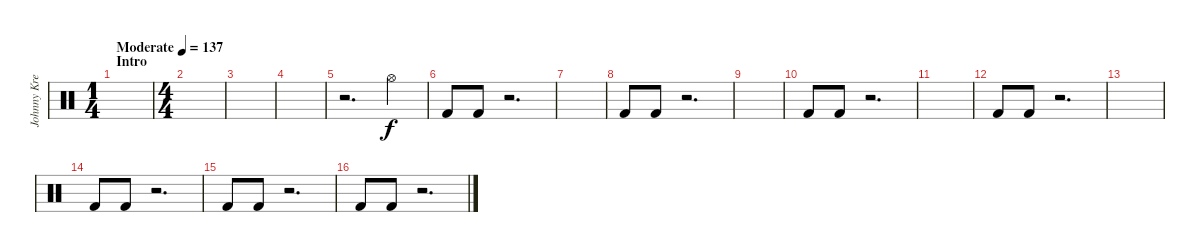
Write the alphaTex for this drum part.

\track ("Johnny Kreis" "Johnny Kre") {instrument percussion}
\staff {score}
\articulation defaults
\ts (1 4)
\section ("" "Intro")
\tempo (137 "Moderate")
\clef neutral
\ks c
|
\ts (4 4)
|
|
|
r.2{d} "Hi-Hat (open)".4 |
"Kick (hit) 2".8 "Kick (hit) 2".8 r.2{d} |
|
"Kick (hit) 2".8 "Kick (hit) 2".8 r.2{d} |
|
"Kick (hit) 2".8 "Kick (hit) 2".8 r.2{d} |
|
"Kick (hit) 2".8 "Kick (hit) 2".8 r.2{d} |
|
"Kick (hit) 2".8 "Kick (hit) 2".8 r.2{d} |
"Kick (hit) 2".8 "Kick (hit) 2".8 r.2{d} |
"Kick (hit) 2".8 "Kick (hit) 2".8 r.2{d}
